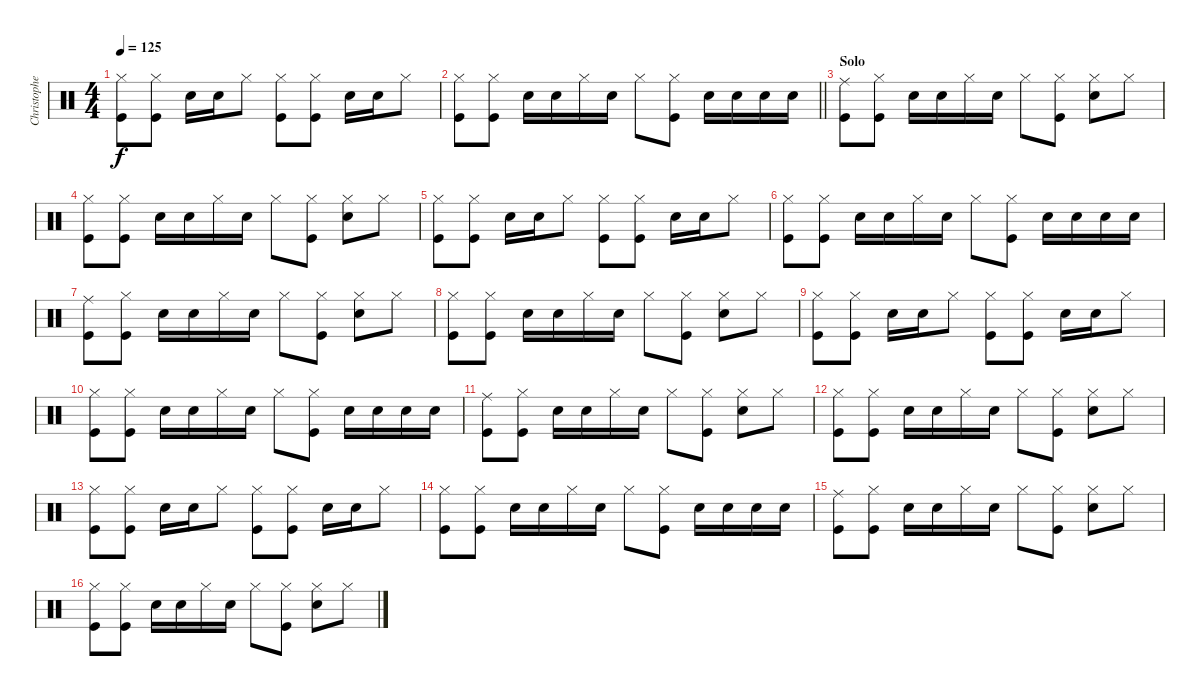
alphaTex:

\track ("Christopher - Drums" "Christophe") {instrument percussion}
\staff {score}
\articulation defaults
\ts (4 4)
\tempo 125
\clef neutral
\ks c
("Hi-Hat (closed)" "Kick (hit)").8{dy f} ("Hi-Hat (closed)" "Kick (hit)").8 "Snare (hit) 2".16 "Snare (hit) 2".16 "Hi-Hat (closed)".8 ("Hi-Hat (closed)" "Kick (hit)").8 ("Hi-Hat (closed)" "Kick (hit)").8 "Snare (hit) 2".16 "Snare (hit) 2".16 "Hi-Hat (closed)".8 |
\barLineRight lightlight
("Hi-Hat (closed)" "Kick (hit)").8 ("Hi-Hat (closed)" "Kick (hit)").8 "Snare (hit) 2".16 "Snare (hit) 2".16 "Hi-Hat (closed)".16 "Snare (hit) 2".16 "Hi-Hat (closed)".8 ("Hi-Hat (closed)" "Kick (hit)").8 "Snare (hit) 2".16 "Snare (hit) 2".16 "Snare (hit) 2".16 "Snare (hit) 2".16 |
\section ("" "Solo")
("Ride (middle)" "Kick (hit)").8 ("Hi-Hat (closed)" "Kick (hit)").8 "Snare (hit) 2".16 "Snare (hit) 2".16 "Hi-Hat (closed)".16 "Snare (hit) 2".16 "Hi-Hat (closed)".8 ("Hi-Hat (closed)" "Kick (hit)").8 ("Hi-Hat (closed)" "Snare (hit) 2").8 "Hi-Hat (closed)".8 |
("Hi-Hat (closed)" "Kick (hit)").8 ("Hi-Hat (closed)" "Kick (hit)").8 "Snare (hit) 2".16 "Snare (hit) 2".16 "Hi-Hat (closed)".16 "Snare (hit) 2".16 "Hi-Hat (closed)".8 ("Hi-Hat (closed)" "Kick (hit)").8 ("Hi-Hat (closed)" "Snare (hit) 2").8 "Hi-Hat (closed)".8 |
("Hi-Hat (closed)" "Kick (hit)").8 ("Hi-Hat (closed)" "Kick (hit)").8 "Snare (hit) 2".16 "Snare (hit) 2".16 "Hi-Hat (closed)".8 ("Hi-Hat (closed)" "Kick (hit)").8 ("Hi-Hat (closed)" "Kick (hit)").8 "Snare (hit) 2".16 "Snare (hit) 2".16 "Hi-Hat (closed)".8 |
("Hi-Hat (closed)" "Kick (hit)").8 ("Hi-Hat (closed)" "Kick (hit)").8 "Snare (hit) 2".16 "Snare (hit) 2".16 "Hi-Hat (closed)".16 "Snare (hit) 2".16 "Hi-Hat (closed)".8 ("Hi-Hat (closed)" "Kick (hit)").8 "Snare (hit) 2".16 "Snare (hit) 2".16 "Snare (hit) 2".16 "Snare (hit) 2".16 |
("Ride (middle)" "Kick (hit)").8 ("Hi-Hat (closed)" "Kick (hit)").8 "Snare (hit) 2".16 "Snare (hit) 2".16 "Hi-Hat (closed)".16 "Snare (hit) 2".16 "Hi-Hat (closed)".8 ("Hi-Hat (closed)" "Kick (hit)").8 ("Hi-Hat (closed)" "Snare (hit) 2").8 "Hi-Hat (closed)".8 |
("Hi-Hat (closed)" "Kick (hit)").8 ("Hi-Hat (closed)" "Kick (hit)").8 "Snare (hit) 2".16 "Snare (hit) 2".16 "Hi-Hat (closed)".16 "Snare (hit) 2".16 "Hi-Hat (closed)".8 ("Hi-Hat (closed)" "Kick (hit)").8 ("Hi-Hat (closed)" "Snare (hit) 2").8 "Hi-Hat (closed)".8 |
("Hi-Hat (closed)" "Kick (hit)").8 ("Hi-Hat (closed)" "Kick (hit)").8 "Snare (hit) 2".16 "Snare (hit) 2".16 "Hi-Hat (closed)".8 ("Hi-Hat (closed)" "Kick (hit)").8 ("Hi-Hat (closed)" "Kick (hit)").8 "Snare (hit) 2".16 "Snare (hit) 2".16 "Hi-Hat (closed)".8 |
("Hi-Hat (closed)" "Kick (hit)").8 ("Hi-Hat (closed)" "Kick (hit)").8 "Snare (hit) 2".16 "Snare (hit) 2".16 "Hi-Hat (closed)".16 "Snare (hit) 2".16 "Hi-Hat (closed)".8 ("Hi-Hat (closed)" "Kick (hit)").8 "Snare (hit) 2".16 "Snare (hit) 2".16 "Snare (hit) 2".16 "Snare (hit) 2".16 |
("Ride (middle)" "Kick (hit)").8 ("Hi-Hat (closed)" "Kick (hit)").8 "Snare (hit) 2".16 "Snare (hit) 2".16 "Hi-Hat (closed)".16 "Snare (hit) 2".16 "Hi-Hat (closed)".8 ("Hi-Hat (closed)" "Kick (hit)").8 ("Hi-Hat (closed)" "Snare (hit) 2").8 "Hi-Hat (closed)".8 |
("Hi-Hat (closed)" "Kick (hit)").8 ("Hi-Hat (closed)" "Kick (hit)").8 "Snare (hit) 2".16 "Snare (hit) 2".16 "Hi-Hat (closed)".16 "Snare (hit) 2".16 "Hi-Hat (closed)".8 ("Hi-Hat (closed)" "Kick (hit)").8 ("Hi-Hat (closed)" "Snare (hit) 2").8 "Hi-Hat (closed)".8 |
("Hi-Hat (closed)" "Kick (hit)").8 ("Hi-Hat (closed)" "Kick (hit)").8 "Snare (hit) 2".16 "Snare (hit) 2".16 "Hi-Hat (closed)".8 ("Hi-Hat (closed)" "Kick (hit)").8 ("Hi-Hat (closed)" "Kick (hit)").8 "Snare (hit) 2".16 "Snare (hit) 2".16 "Hi-Hat (closed)".8 |
("Hi-Hat (closed)" "Kick (hit)").8 ("Hi-Hat (closed)" "Kick (hit)").8 "Snare (hit) 2".16 "Snare (hit) 2".16 "Hi-Hat (closed)".16 "Snare (hit) 2".16 "Hi-Hat (closed)".8 ("Hi-Hat (closed)" "Kick (hit)").8 "Snare (hit) 2".16 "Snare (hit) 2".16 "Snare (hit) 2".16 "Snare (hit) 2".16 |
("Ride (middle)" "Kick (hit)").8 ("Hi-Hat (closed)" "Kick (hit)").8 "Snare (hit) 2".16 "Snare (hit) 2".16 "Hi-Hat (closed)".16 "Snare (hit) 2".16 "Hi-Hat (closed)".8 ("Hi-Hat (closed)" "Kick (hit)").8 ("Hi-Hat (closed)" "Snare (hit) 2").8 "Hi-Hat (closed)".8 |
("Hi-Hat (closed)" "Kick (hit)").8 ("Hi-Hat (closed)" "Kick (hit)").8 "Snare (hit) 2".16 "Snare (hit) 2".16 "Hi-Hat (closed)".16 "Snare (hit) 2".16 "Hi-Hat (closed)".8 ("Hi-Hat (closed)" "Kick (hit)").8 ("Hi-Hat (closed)" "Snare (hit) 2").8 "Hi-Hat (closed)".8
